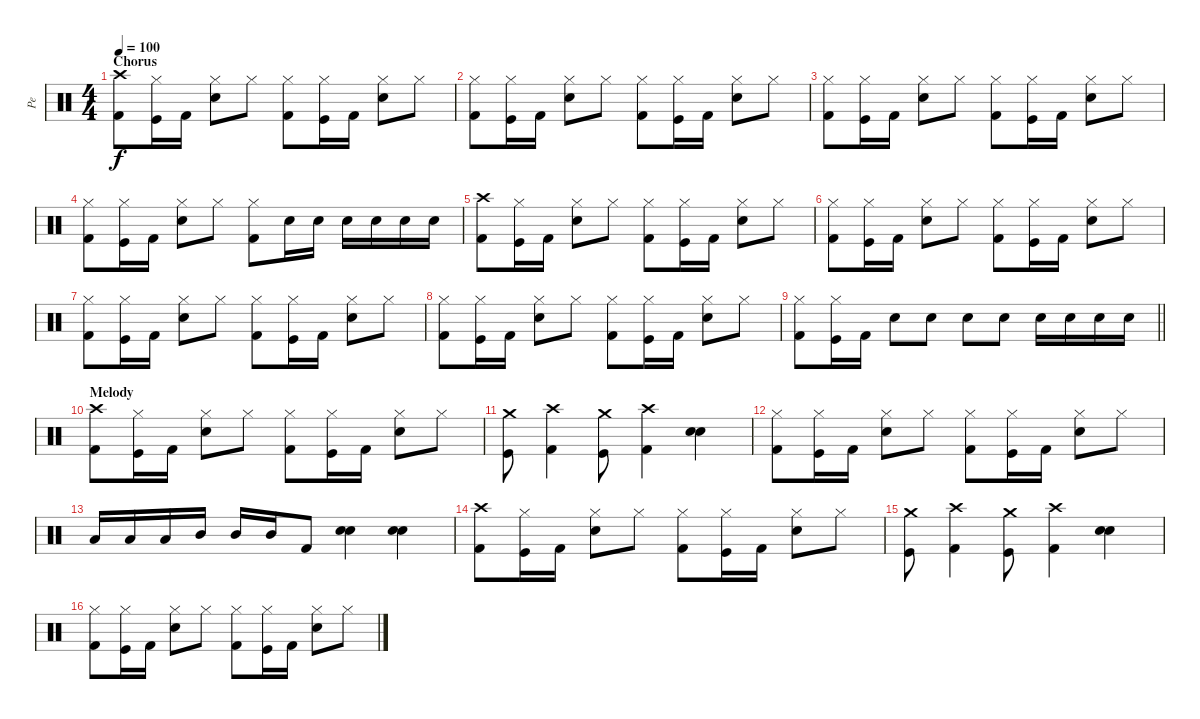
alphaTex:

\track ("Pe" "Pe") {instrument percussion}
\staff {score}
\articulation defaults
\ts (4 4)
\section ("" "Chorus")
\tempo 100
\clef neutral
\ks c
("Kick (hit) 2" "Crash high (hit)").8{dy f} ("Kick (hit)" "Hi-Hat (closed)").16 "Kick (hit) 2".16 ("Electric Snare (hit)" "Hi-Hat (closed)").8 "Hi-Hat (closed)".8 ("Kick (hit) 2" "Hi-Hat (closed)").8 ("Kick (hit)" "Hi-Hat (closed)").16 "Kick (hit) 2".16 ("Electric Snare (hit)" "Hi-Hat (closed)").8 "Hi-Hat (closed)".8 |
("Kick (hit) 2" "Hi-Hat (closed)").8 ("Kick (hit)" "Hi-Hat (closed)").16 "Kick (hit) 2".16 ("Electric Snare (hit)" "Hi-Hat (closed)").8 "Hi-Hat (closed)".8 ("Kick (hit) 2" "Hi-Hat (closed)").8 ("Kick (hit)" "Hi-Hat (closed)").16 "Kick (hit) 2".16 ("Electric Snare (hit)" "Hi-Hat (closed)").8 "Hi-Hat (closed)".8 |
("Kick (hit) 2" "Hi-Hat (closed)").8 ("Kick (hit)" "Hi-Hat (closed)").16 "Kick (hit) 2".16 ("Electric Snare (hit)" "Hi-Hat (closed)").8 "Hi-Hat (closed)".8 ("Kick (hit) 2" "Hi-Hat (closed)").8 ("Kick (hit)" "Hi-Hat (closed)").16 "Kick (hit) 2".16 ("Electric Snare (hit)" "Hi-Hat (closed)").8 "Hi-Hat (closed)".8 |
("Kick (hit) 2" "Hi-Hat (closed)").8 ("Kick (hit)" "Hi-Hat (closed)").16 "Kick (hit) 2".16 ("Electric Snare (hit)" "Hi-Hat (closed)").8 "Hi-Hat (closed)".8 ("Kick (hit) 2" "Hi-Hat (closed)").8 "Electric Snare (hit)".16 "Electric Snare (hit)".16 "Electric Snare (hit)".16 "Electric Snare (hit)".16 "Electric Snare (hit)".16 "Electric Snare (hit)".16 |
("Kick (hit) 2" "Crash high (hit)").8 ("Kick (hit)" "Hi-Hat (closed)").16 "Kick (hit) 2".16 ("Electric Snare (hit)" "Hi-Hat (closed)").8 "Hi-Hat (closed)".8 ("Kick (hit) 2" "Hi-Hat (closed)").8 ("Kick (hit)" "Hi-Hat (closed)").16 "Kick (hit) 2".16 ("Electric Snare (hit)" "Hi-Hat (closed)").8 "Hi-Hat (closed)".8 |
("Kick (hit) 2" "Hi-Hat (closed)").8 ("Kick (hit)" "Hi-Hat (closed)").16 "Kick (hit) 2".16 ("Electric Snare (hit)" "Hi-Hat (closed)").8 "Hi-Hat (closed)".8 ("Kick (hit) 2" "Hi-Hat (closed)").8 ("Kick (hit)" "Hi-Hat (closed)").16 "Kick (hit) 2".16 ("Electric Snare (hit)" "Hi-Hat (closed)").8 "Hi-Hat (closed)".8 |
("Kick (hit) 2" "Hi-Hat (closed)").8 ("Kick (hit)" "Hi-Hat (closed)").16 "Kick (hit) 2".16 ("Electric Snare (hit)" "Hi-Hat (closed)").8 "Hi-Hat (closed)".8 ("Kick (hit) 2" "Hi-Hat (closed)").8 ("Kick (hit)" "Hi-Hat (closed)").16 "Kick (hit) 2".16 ("Electric Snare (hit)" "Hi-Hat (closed)").8 "Hi-Hat (closed)".8 |
("Kick (hit) 2" "Hi-Hat (closed)").8 ("Kick (hit)" "Hi-Hat (closed)").16 "Kick (hit) 2".16 ("Electric Snare (hit)" "Hi-Hat (closed)").8 "Hi-Hat (closed)".8 ("Kick (hit) 2" "Hi-Hat (closed)").8 ("Kick (hit)" "Hi-Hat (closed)").16 "Kick (hit) 2".16 ("Electric Snare (hit)" "Hi-Hat (closed)").8 "Hi-Hat (closed)".8 |
\barLineRight lightlight
("Kick (hit) 2" "Hi-Hat (closed)").8 ("Kick (hit)" "Hi-Hat (closed)").16 "Kick (hit) 2".16 "Electric Snare (hit)".8 "Electric Snare (hit)".8 "Electric Snare (hit)".8 "Electric Snare (hit)".8 "Electric Snare (hit)".16 "Electric Snare (hit)".16 "Electric Snare (hit)".16 "Electric Snare (hit)".16 |
\section ("" "Melody")
("Kick (hit) 2" "Crash high (hit)").8 ("Kick (hit)" "Hi-Hat (closed)").16 "Kick (hit) 2".16 ("Electric Snare (hit)" "Hi-Hat (closed)").8 "Hi-Hat (closed)".8 ("Kick (hit) 2" "Hi-Hat (closed)").8 ("Kick (hit)" "Hi-Hat (closed)").16 "Kick (hit) 2".16 ("Electric Snare (hit)" "Hi-Hat (closed)").8 "Hi-Hat (closed)".8 |
("Kick (hit)" "Crash medium (hit)").8 ("Kick (hit) 2" "Crash high (hit)").4 ("Kick (hit)" "Crash medium (hit)").8 ("Kick (hit) 2" "Crash high (hit)").4 ("Electric Snare (hit)" "Electric Snare (hit)").4 |
("Kick (hit) 2" "Hi-Hat (closed)").8 ("Kick (hit)" "Hi-Hat (closed)").16 "Kick (hit) 2".16 ("Electric Snare (hit)" "Hi-Hat (closed)").8 "Hi-Hat (closed)".8 ("Kick (hit) 2" "Hi-Hat (closed)").8 ("Kick (hit)" "Hi-Hat (closed)").16 "Kick (hit) 2".16 ("Electric Snare (hit)" "Hi-Hat (closed)").8 "Hi-Hat (closed)".8 |
"Low Tom (hit)".16 "Low Tom (hit)".16 "Low Tom (hit)".16 "Mid Tom (hit)".16 "Mid Tom (hit)".16 "Mid Tom (hit)".16 "Kick (hit) 2".8 ("Electric Snare (hit)" "Electric Snare (hit)").4 ("Electric Snare (hit)" "Electric Snare (hit)").4 |
("Kick (hit) 2" "Crash high (hit)").8 ("Kick (hit)" "Hi-Hat (closed)").16 "Kick (hit) 2".16 ("Electric Snare (hit)" "Hi-Hat (closed)").8 "Hi-Hat (closed)".8 ("Kick (hit) 2" "Hi-Hat (closed)").8 ("Kick (hit)" "Hi-Hat (closed)").16 "Kick (hit) 2".16 ("Electric Snare (hit)" "Hi-Hat (closed)").8 "Hi-Hat (closed)".8 |
("Kick (hit)" "Crash medium (hit)").8 ("Kick (hit) 2" "Crash high (hit)").4 ("Kick (hit)" "Crash medium (hit)").8 ("Kick (hit) 2" "Crash high (hit)").4 ("Electric Snare (hit)" "Electric Snare (hit)").4 |
("Kick (hit) 2" "Hi-Hat (closed)").8 ("Kick (hit)" "Hi-Hat (closed)").16 "Kick (hit) 2".16 ("Electric Snare (hit)" "Hi-Hat (closed)").8 "Hi-Hat (closed)".8 ("Kick (hit) 2" "Hi-Hat (closed)").8 ("Kick (hit)" "Hi-Hat (closed)").16 "Kick (hit) 2".16 ("Electric Snare (hit)" "Hi-Hat (closed)").8 "Hi-Hat (closed)".8
